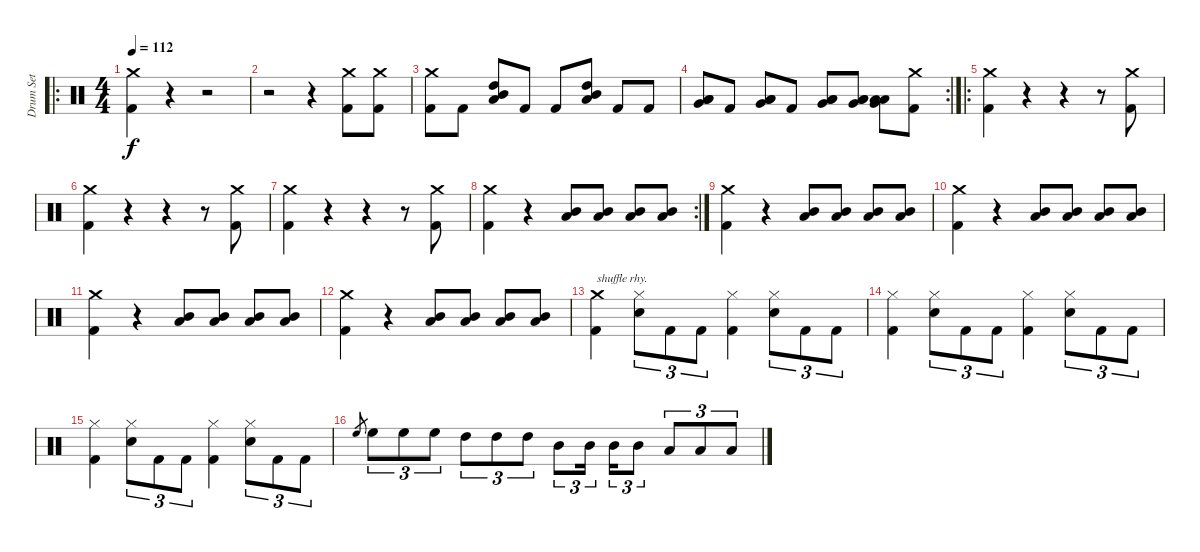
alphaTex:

\track ("Drum Set" "Drum Set") {instrument percussion}
\staff {score}
\articulation defaults
\ro
\ts (4 4)
\tempo 112
\clef neutral
\ks c
("Crash medium (hit)" "Kick (hit) 2").4{dy f} r.4 r.2 |
r.2 r.4 ("Crash medium (hit)" "Kick (hit) 2").8 ("Crash medium (hit)" "Kick (hit) 2").8 |
("Crash medium (hit)" "Kick (hit) 2").8 "Kick (hit) 2".8 ("High Tom (hit)" "Mid Tom (hit)" "Low Tom (hit)").8 "Kick (hit) 2".8 "Kick (hit) 2".8 ("High Tom (hit)" "Mid Tom (hit)" "Low Tom (hit)").8 "Kick (hit) 2".8 "Kick (hit) 2".8 |
\rc 2
("Low Tom (hit)" "Very Low Tom (hit)" "Low Floor Tom (hit)").8 "Kick (hit) 2".8 ("Low Tom (hit)" "Very Low Tom (hit)" "Low Floor Tom (hit)").8 "Kick (hit) 2".8 ("Low Tom (hit)" "Very Low Tom (hit)" "Low Floor Tom (hit)").8 ("Low Tom (hit)" "Very Low Tom (hit)" "Low Floor Tom (hit)").8 ("Low Tom (hit)" "Very Low Tom (hit)" "Low Floor Tom (hit)").8 ("Crash medium (hit)" "Kick (hit) 2").8 |
\ro
("Crash medium (hit)" "Kick (hit) 2").4 r.4 r.4 r.8 ("Crash medium (hit)" "Kick (hit) 2").8 |
("Crash medium (hit)" "Kick (hit) 2").4 r.4 r.4 r.8 ("Crash medium (hit)" "Kick (hit) 2").8 |
("Crash medium (hit)" "Kick (hit) 2").4 r.4 r.4 r.8 ("Crash medium (hit)" "Kick (hit) 2").8 |
\rc 2
("Crash medium (hit)" "Kick (hit) 2").4 r.4 ("Mid Tom (hit)" "Low Tom (hit)").8 ("Mid Tom (hit)" "Low Tom (hit)").8 ("Mid Tom (hit)" "Low Tom (hit)").8 ("Mid Tom (hit)" "Low Tom (hit)").8 |
("Crash medium (hit)" "Kick (hit) 2").4 r.4 ("Mid Tom (hit)" "Low Tom (hit)").8 ("Mid Tom (hit)" "Low Tom (hit)").8 ("Mid Tom (hit)" "Low Tom (hit)").8 ("Mid Tom (hit)" "Low Tom (hit)").8 |
("Crash medium (hit)" "Kick (hit) 2").4 r.4 ("Mid Tom (hit)" "Low Tom (hit)").8 ("Mid Tom (hit)" "Low Tom (hit)").8 ("Mid Tom (hit)" "Low Tom (hit)").8 ("Mid Tom (hit)" "Low Tom (hit)").8 |
("Crash medium (hit)" "Kick (hit) 2").4 r.4 ("Mid Tom (hit)" "Low Tom (hit)").8 ("Mid Tom (hit)" "Low Tom (hit)").8 ("Mid Tom (hit)" "Low Tom (hit)").8 ("Mid Tom (hit)" "Low Tom (hit)").8 |
("Crash medium (hit)" "Kick (hit) 2").4 r.4 ("Mid Tom (hit)" "Low Tom (hit)").8 ("Mid Tom (hit)" "Low Tom (hit)").8 ("Mid Tom (hit)" "Low Tom (hit)").8 ("Mid Tom (hit)" "Low Tom (hit)").8 |
("Crash medium (hit)" "Kick (hit) 2").4{txt "shuffle rhy."} ("Hi-Hat (closed)" "Snare (hit) 2").8{tu (3 2)} "Kick (hit) 2".8{tu (3 2)} "Kick (hit) 2".8{tu (3 2)} ("Hi-Hat (closed)" "Kick (hit) 2").4 ("Hi-Hat (closed)" "Snare (hit) 2").8{tu (3 2)} "Kick (hit) 2".8{tu (3 2)} "Kick (hit) 2".8{tu (3 2)} |
("Hi-Hat (closed)" "Kick (hit) 2").4 ("Hi-Hat (closed)" "Snare (hit) 2").8{tu (3 2)} "Kick (hit) 2".8{tu (3 2)} "Kick (hit) 2".8{tu (3 2)} ("Hi-Hat (closed)" "Kick (hit) 2").4 ("Hi-Hat (closed)" "Snare (hit) 2").8{tu (3 2)} "Kick (hit) 2".8{tu (3 2)} "Kick (hit) 2".8{tu (3 2)} |
("Hi-Hat (closed)" "Kick (hit) 2").4 ("Hi-Hat (closed)" "Snare (hit) 2").8{tu (3 2)} "Kick (hit) 2".8{tu (3 2)} "Kick (hit) 2".8{tu (3 2)} ("Hi-Hat (closed)" "Kick (hit) 2").4 ("Hi-Hat (closed)" "Snare (hit) 2").8{tu (3 2)} "Kick (hit) 2".8{tu (3 2)} "Kick (hit) 2".8{tu (3 2)} |
"High Floor Tom (hit)".8{gr} "High Floor Tom (hit)".8{tu (3 2)} "High Floor Tom (hit)".8{tu (3 2)} "High Floor Tom (hit)".8{tu (3 2)} "High Tom (hit)".8{tu (3 2)} "High Tom (hit)".8{tu (3 2)} "High Tom (hit)".8{tu (3 2)} "Mid Tom (hit)".8{tu (3 2)} "Mid Tom (hit)".16{tu (3 2)} "Mid Tom (hit)".16{tu (3 2)} "Mid Tom (hit)".8{tu (3 2)} "Low Tom (hit)".8{tu (3 2)} "Low Tom (hit)".8{tu (3 2)} "Low Tom (hit)".8{tu (3 2)}
